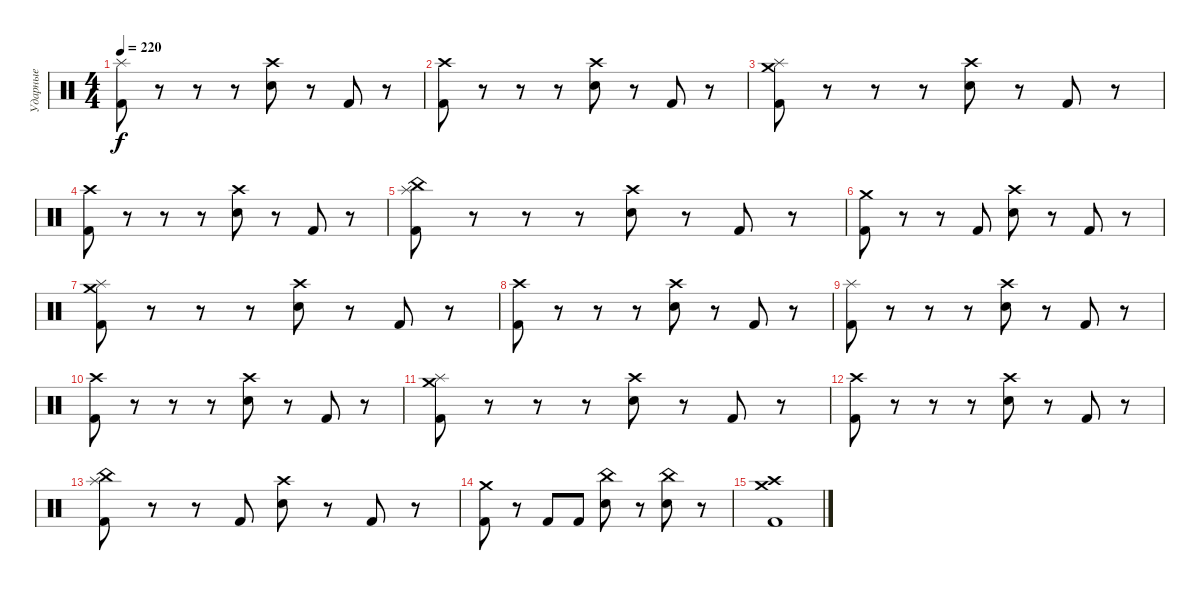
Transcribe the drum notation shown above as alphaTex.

\track ("Ударные" "Ударные") {instrument percussion}
\staff {score}
\articulation defaults
\ts (4 4)
\tempo 220
\clef neutral
\ks c
("Kick (hit) 2" "Splash (hit)").8{dy f} r.8 r.8 r.8 ("Electric Snare (hit)" "Crash high (hit)").8 r.8 "Kick (hit) 2".8 r.8 |
("Kick (hit) 2" "Crash high (hit)").8 r.8 r.8 r.8 ("Electric Snare (hit)" "Crash high (hit)").8 r.8 "Kick (hit) 2".8 r.8 |
("Kick (hit) 2" "Splash (hit)" "Crash medium (hit)").8 r.8 r.8 r.8 ("Electric Snare (hit)" "Crash high (hit)").8 r.8 "Kick (hit) 2".8 r.8 |
("Kick (hit) 2" "Crash high (hit)").8 r.8 r.8 r.8 ("Electric Snare (hit)" "Crash high (hit)").8 r.8 "Kick (hit) 2".8 r.8 |
("Kick (hit) 2" "China (hit)" "Splash (hit)").8 r.8 r.8 r.8 ("Electric Snare (hit)" "Crash high (hit)").8 r.8 "Kick (hit) 2".8 r.8 |
("Kick (hit) 2" "Crash medium (hit)").8 r.8 r.8 "Kick (hit) 2".8 ("Electric Snare (hit)" "Crash high (hit)").8 r.8 "Kick (hit) 2".8 r.8 |
("Kick (hit) 2" "Splash (hit)" "Crash medium (hit)").8 r.8 r.8 r.8 ("Electric Snare (hit)" "Crash high (hit)").8 r.8 "Kick (hit) 2".8 r.8 |
("Kick (hit) 2" "Crash high (hit)").8 r.8 r.8 r.8 ("Electric Snare (hit)" "Crash high (hit)").8 r.8 "Kick (hit) 2".8 r.8 |
("Kick (hit) 2" "Splash (hit)").8 r.8 r.8 r.8 ("Electric Snare (hit)" "Crash high (hit)").8 r.8 "Kick (hit) 2".8 r.8 |
("Kick (hit) 2" "Crash high (hit)").8 r.8 r.8 r.8 ("Electric Snare (hit)" "Crash high (hit)").8 r.8 "Kick (hit) 2".8 r.8 |
("Kick (hit) 2" "Splash (hit)" "Crash medium (hit)").8 r.8 r.8 r.8 ("Electric Snare (hit)" "Crash high (hit)").8 r.8 "Kick (hit) 2".8 r.8 |
("Kick (hit) 2" "Crash high (hit)").8 r.8 r.8 r.8 ("Electric Snare (hit)" "Crash high (hit)").8 r.8 "Kick (hit) 2".8 r.8 |
("Kick (hit) 2" "China (hit)" "Splash (hit)").8 r.8 r.8 "Kick (hit) 2".8 ("Electric Snare (hit)" "Crash high (hit)").8 r.8 "Kick (hit) 2".8 r.8 |
("Kick (hit) 2" "Crash medium (hit)").8 r.8 "Kick (hit) 2".8 "Kick (hit) 2".8 ("Electric Snare (hit)" "China (hit)").8 r.8 ("Electric Snare (hit)" "China (hit)").8 r.8 |
("Kick (hit) 2" "Crash high (hit)" "Crash medium (hit)").1
